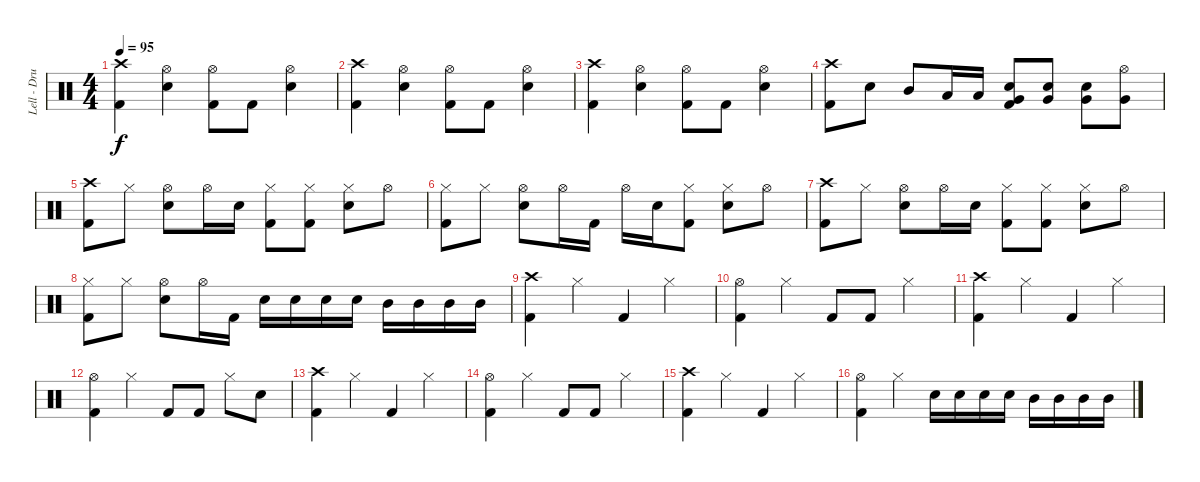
\track ("Lell - Drums" "Lell - Dru") {instrument percussion}
\staff {score}
\articulation defaults
\ts (4 4)
\tempo 95
\clef neutral
\ks c
("Crash high (hit)" "Kick (hit) 2").4{dy f} ("Hi-Hat (open)" "Snare (hit) 2").4 ("Hi-Hat (open)" "Kick (hit) 2").8 "Kick (hit) 2".8 ("Hi-Hat (open)" "Snare (hit) 2").4 |
("Crash high (hit)" "Kick (hit) 2").4 ("Hi-Hat (open)" "Snare (hit) 2").4 ("Hi-Hat (open)" "Kick (hit) 2").8 "Kick (hit) 2".8 ("Hi-Hat (open)" "Snare (hit) 2").4 |
("Crash high (hit)" "Kick (hit) 2").4 ("Hi-Hat (open)" "Snare (hit) 2").4 ("Hi-Hat (open)" "Kick (hit) 2").8 "Kick (hit) 2".8 ("Hi-Hat (open)" "Snare (hit) 2").4 |
("Crash high (hit)" "Kick (hit) 2").8 "Snare (hit) 2".8 "Mid Tom (hit)".8 "Low Tom (hit)".16 "Low Tom (hit)".16 ("Very Low Tom (hit)" "Snare (hit) 2" "Kick (hit) 2").8 ("Very Low Tom (hit)" "Snare (hit) 2").8 ("Very Low Tom (hit)" "Snare (hit) 2").8 ("Hi-Hat (open)" "Very Low Tom (hit)").8 |
("Crash high (hit)" "Kick (hit) 2").8 "Hi-Hat (closed)".8 ("Hi-Hat (open)" "Snare (hit) 2").8 "Hi-Hat (open)".16 "Snare (hit) 2".16 ("Hi-Hat (closed)" "Kick (hit) 2").8 ("Hi-Hat (closed)" "Kick (hit) 2").8 ("Hi-Hat (closed)" "Snare (hit) 2").8 "Hi-Hat (open)".8 |
("Hi-Hat (closed)" "Kick (hit) 2").8 "Hi-Hat (closed)".8 ("Hi-Hat (open)" "Snare (hit) 2").8 "Hi-Hat (open)".16 "Kick (hit) 2".16 "Hi-Hat (open)".16 "Snare (hit) 2".16 ("Hi-Hat (closed)" "Kick (hit) 2").8 ("Hi-Hat (closed)" "Snare (hit) 2").8 "Hi-Hat (open)".8 |
("Crash high (hit)" "Kick (hit) 2").8 "Hi-Hat (closed)".8 ("Hi-Hat (open)" "Snare (hit) 2").8 "Hi-Hat (open)".16 "Snare (hit) 2".16 ("Hi-Hat (closed)" "Kick (hit) 2").8 ("Hi-Hat (closed)" "Kick (hit) 2").8 ("Hi-Hat (closed)" "Snare (hit) 2").8 "Hi-Hat (open)".8 |
("Hi-Hat (closed)" "Kick (hit) 2").8 "Hi-Hat (closed)".8 ("Hi-Hat (open)" "Snare (hit) 2").8 "Hi-Hat (open)".16 "Kick (hit) 2".16 "Snare (hit) 2".16 "Snare (hit) 2".16 "Snare (hit) 2".16 "Snare (hit) 2".16 "Mid Tom (hit)".16 "Mid Tom (hit)".16 "Mid Tom (hit)".16 "Mid Tom (hit)".16 |
("Crash high (hit)" "Kick (hit) 2").4 "Hi-Hat (closed)".4 "Kick (hit) 2".4 "Hi-Hat (closed)".4 |
("Hi-Hat (open)" "Kick (hit) 2").4 "Hi-Hat (closed)".4 "Kick (hit) 2".8 "Kick (hit) 2".8 "Hi-Hat (closed)".4 |
("Crash high (hit)" "Kick (hit) 2").4 "Hi-Hat (closed)".4 "Kick (hit) 2".4 "Hi-Hat (closed)".4 |
("Hi-Hat (open)" "Kick (hit) 2").4 "Hi-Hat (closed)".4 "Kick (hit) 2".8 "Kick (hit) 2".8 "Hi-Hat (closed)".8 "Snare (hit) 2".8 |
("Crash high (hit)" "Kick (hit) 2").4 "Hi-Hat (closed)".4 "Kick (hit) 2".4 "Hi-Hat (closed)".4 |
("Hi-Hat (open)" "Kick (hit) 2").4 "Hi-Hat (closed)".4 "Kick (hit) 2".8 "Kick (hit) 2".8 "Hi-Hat (closed)".4 |
("Crash high (hit)" "Kick (hit) 2").4 "Hi-Hat (closed)".4 "Kick (hit) 2".4 "Hi-Hat (closed)".4 |
("Hi-Hat (open)" "Kick (hit) 2").4 "Hi-Hat (closed)".4 "Snare (hit) 2".16 "Snare (hit) 2".16 "Snare (hit) 2".16 "Snare (hit) 2".16 "Mid Tom (hit)".16 "Mid Tom (hit)".16 "Mid Tom (hit)".16 "Mid Tom (hit)".16
